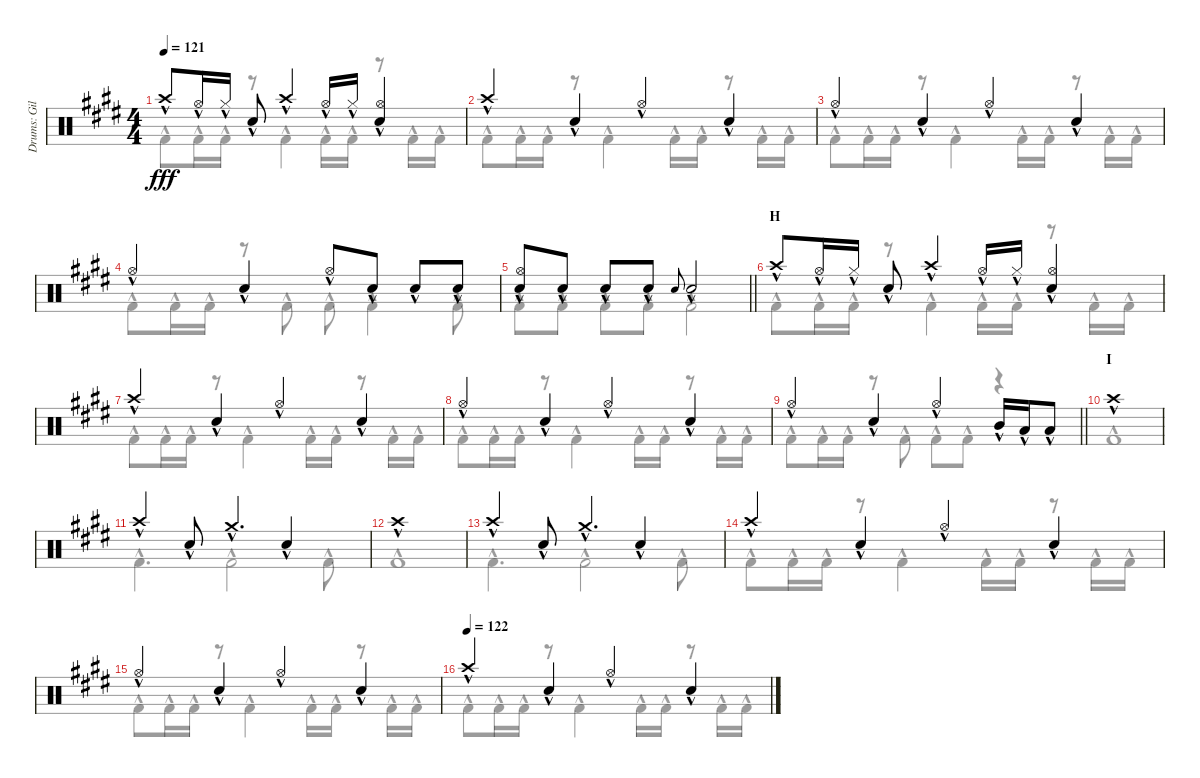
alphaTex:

\track ("Drums: Gil" "Drums: Gil") {instrument percussion}
\staff {score}
\articulation defaults
\voice
\ts (4 4)
\tempo 121
\clef neutral
\ks e "Crash high (hit)"{hac}.8{dy fff} "Hi-Hat (open)"{hac}.16 "Hi-Hat (closed)"{hac}.16 "Snare (hit) 2"{hac}.8 "Crash high (hit)"{hac}.4 "Hi-Hat (open)"{hac}.16 "Hi-Hat (closed)"{hac}.16
("Hi-Hat (open)"{hac} "Snare (hit) 2"{hac}).4 |
"Crash high (hit)"{hac}.4 "Snare (hit) 2"{hac}.4 "Hi-Hat (open)"{hac}.4 "Snare (hit) 2"{hac}.4 |
"Hi-Hat (open)"{hac}.4 "Snare (hit) 2"{hac}.4 "Hi-Hat (open)"{hac}.4 "Snare (hit) 2"{hac}.4 |
"Hi-Hat (open)"{hac}.4 "Snare (hit) 2"{hac}.4 "Hi-Hat (open)"{hac}.8 "Snare (hit) 2"{hac}.8 "Snare (hit) 2"{hac}.8 "Snare (hit) 2"{hac}.8 |
\barLineRight lightlight
("Hi-Hat (open)"{hac} "Snare (hit) 2"{hac}).8 "Snare (hit) 2"{hac}.8 "Snare (hit) 2"{hac}.8 "Snare (hit) 2"{hac}.8 "Electric Snare (hit)".8{gr onbeat} "Snare (hit) 2"{hac}.2 |
\section ("" "H")
"Crash high (hit)"{hac}.8 "Hi-Hat (open)"{hac}.16 "Hi-Hat (closed)"{hac}.16 "Snare (hit) 2"{hac}.8 "Crash high (hit)"{hac}.4 "Hi-Hat (open)"{hac}.16 "Hi-Hat (closed)"{hac}.16 ("Hi-Hat (open)"{hac} "Snare (hit) 2"{hac}).4 |
"Crash high (hit)"{hac}.4 "Snare (hit) 2"{hac}.4 "Hi-Hat (open)"{hac}.4 "Snare (hit) 2"{hac}.4 |
"Hi-Hat (open)"{hac}.4 "Snare (hit) 2"{hac}.4 "Hi-Hat (open)"{hac}.4 "Snare (hit) 2"{hac}.4 |
\barLineRight lightlight "Hi-Hat (open)"{hac}.4 "Snare (hit) 2"{hac}.4 "Hi-Hat (open)"{hac}.4 "Mid Tom (hit)"{hac}.16 "Low Tom (hit)"{hac}.16 "Low Tom (hit)"{hac}.8
|
\section ("" "I")
"Crash high (hit)"{hac}.1 |
"Crash high (hit)"{hac}.4 "Snare (hit) 2"{hac}.8 "Crash medium (hit)"{hac}.4{d} "Snare (hit) 2"{hac}.4 |
"Crash high (hit)"{hac}.1 |
"Crash high (hit)"{hac}.4 "Snare (hit) 2"{hac}.8 "Crash medium (hit)"{hac}.4{d} "Snare (hit) 2"{hac}.4 |
"Crash high (hit)"{hac}.4 "Snare (hit) 2"{hac}.4 "Hi-Hat (open)"{hac}.4 "Snare (hit) 2"{hac}.4 |
"Hi-Hat (open)"{hac}.4 "Snare (hit) 2"{hac}.4 "Hi-Hat (open)"{hac}.4 "Snare (hit) 2"{hac}.4 |
\tempo (122)
"Crash high (hit)"{hac}.4 "Snare (hit) 2"{hac}.4 "Hi-Hat (open)"{hac}.4 "Snare (hit) 2"{hac}.4
\voice
\clef neutral
\ottava regular
\simile none
\ks e "Kick (hit) 2"{hac}.8{dy fff} "Kick (hit) 2"{hac}.16 "Kick (hit) 2"{hac}.16
r.8 "Kick (hit) 2"{hac}.4 "Kick (hit) 2"{hac}.16 "Kick (hit) 2"{hac}.16 r.8 "Kick (hit) 2"{hac}.16 "Kick (hit) 2"{hac}.16 |
"Kick (hit) 2"{hac}.8 "Kick (hit) 2"{hac}.16 "Kick (hit) 2"{hac}.16 r.8 "Kick (hit) 2"{hac}.4 "Kick (hit) 2"{hac}.16 "Kick (hit) 2"{hac}.16 r.8 "Kick (hit) 2"{hac}.16 "Kick (hit) 2"{hac}.16 |
"Kick (hit) 2"{hac}.8 "Kick (hit) 2"{hac}.16 "Kick (hit) 2"{hac}.16 r.8 "Kick (hit) 2"{hac}.4 "Kick (hit) 2"{hac}.16 "Kick (hit) 2"{hac}.16 r.8 "Kick (hit) 2"{hac}.16 "Kick (hit) 2"{hac}.16 |
"Kick (hit) 2"{hac}.8 "Kick (hit) 2"{hac}.16 "Kick (hit) 2"{hac}.16 r.8 "Kick (hit) 2"{hac}.8 "Kick (hit) 2"{hac}.8 "Kick (hit) 2"{hac}.4 "Kick (hit) 2"{hac}.8 |
\barLineRight lightlight "Kick (hit) 2"{hac}.8 "Kick (hit) 2"{hac}.8 "Kick (hit) 2"{hac}.8 "Kick (hit) 2"{hac}.8 "Kick (hit) 2"{hac}.2
|
"Kick (hit) 2"{hac}.8 "Kick (hit) 2"{hac}.16 "Kick (hit) 2"{hac}.16 r.8 "Kick (hit) 2"{hac}.4 "Kick (hit) 2"{hac}.16 "Kick (hit) 2"{hac}.16 r.8 "Kick (hit) 2"{hac}.16 "Kick (hit) 2"{hac}.16 |
"Kick (hit) 2"{hac}.8 "Kick (hit) 2"{hac}.16 "Kick (hit) 2"{hac}.16 r.8 "Kick (hit) 2"{hac}.4 "Kick (hit) 2"{hac}.16 "Kick (hit) 2"{hac}.16 r.8 "Kick (hit) 2"{hac}.16 "Kick (hit) 2"{hac}.16 |
"Kick (hit) 2"{hac}.8 "Kick (hit) 2"{hac}.16 "Kick (hit) 2"{hac}.16 r.8 "Kick (hit) 2"{hac}.4 "Kick (hit) 2"{hac}.16 "Kick (hit) 2"{hac}.16 r.8 "Kick (hit) 2"{hac}.16 "Kick (hit) 2"{hac}.16 |
\barLineRight lightlight "Kick (hit) 2"{hac}.8 "Kick (hit) 2"{hac}.16 "Kick (hit) 2"{hac}.16
r.8 "Kick (hit) 2"{hac}.8 "Kick (hit) 2"{hac}.8 "Kick (hit) 2"{hac}.8 r.4 |
"Kick (hit) 2"{hac}.1 |
"Kick (hit) 2"{hac}.4{d} "Kick (hit) 2"{hac}.2 "Kick (hit) 2"{hac}.8 |
"Kick (hit) 2"{hac}.1 |
"Kick (hit) 2"{hac}.4{d} "Kick (hit) 2"{hac}.2 "Kick (hit) 2"{hac}.8 |
"Kick (hit) 2"{hac}.8 "Kick (hit) 2"{hac}.16 "Kick (hit) 2"{hac}.16 r.8 "Kick (hit) 2"{hac}.4 "Kick (hit) 2"{hac}.16 "Kick (hit) 2"{hac}.16 r.8 "Kick (hit) 2"{hac}.16 "Kick (hit) 2"{hac}.16 |
"Kick (hit) 2"{hac}.8 "Kick (hit) 2"{hac}.16 "Kick (hit) 2"{hac}.16 r.8 "Kick (hit) 2"{hac}.4 "Kick (hit) 2"{hac}.16 "Kick (hit) 2"{hac}.16 r.8 "Kick (hit) 2"{hac}.16 "Kick (hit) 2"{hac}.16 |
"Kick (hit) 2"{hac}.8 "Kick (hit) 2"{hac}.16 "Kick (hit) 2"{hac}.16 r.8 "Kick (hit) 2"{hac}.4 "Kick (hit) 2"{hac}.16 "Kick (hit) 2"{hac}.16 r.8 "Kick (hit) 2"{hac}.16 "Kick (hit) 2"{hac}.16
